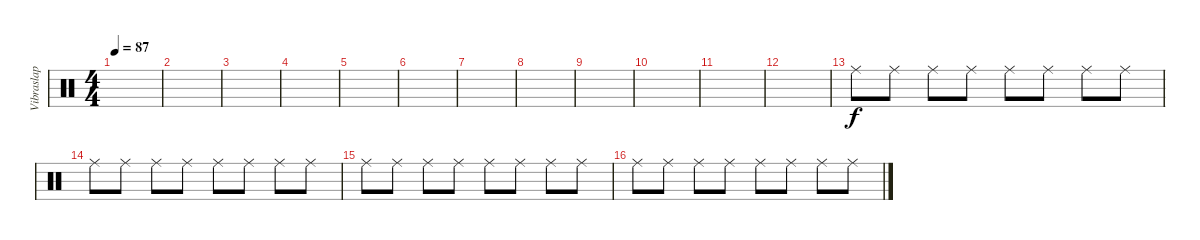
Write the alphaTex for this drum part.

\track ("Vibraslap" "Vibraslap") {instrument percussion}
\staff {score}
\articulation defaults
\ts (4 4)
\tempo 87
\clef neutral
\ks c
|
|
|
|
|
|
|
|
|
|
|
|
"Ride (middle)".8 "Ride (middle)".8 "Ride (middle)".8 "Ride (middle)".8 "Ride (middle)".8 "Ride (middle)".8 "Ride (middle)".8 "Ride (middle)".8 |
"Ride (middle)".8 "Ride (middle)".8 "Ride (middle)".8 "Ride (middle)".8 "Ride (middle)".8 "Ride (middle)".8 "Ride (middle)".8 "Ride (middle)".8 |
"Ride (middle)".8 "Ride (middle)".8 "Ride (middle)".8 "Ride (middle)".8 "Ride (middle)".8 "Ride (middle)".8 "Ride (middle)".8 "Ride (middle)".8 |
"Ride (middle)".8 "Ride (middle)".8 "Ride (middle)".8 "Ride (middle)".8 "Ride (middle)".8 "Ride (middle)".8 "Ride (middle)".8 "Ride (middle)".8
